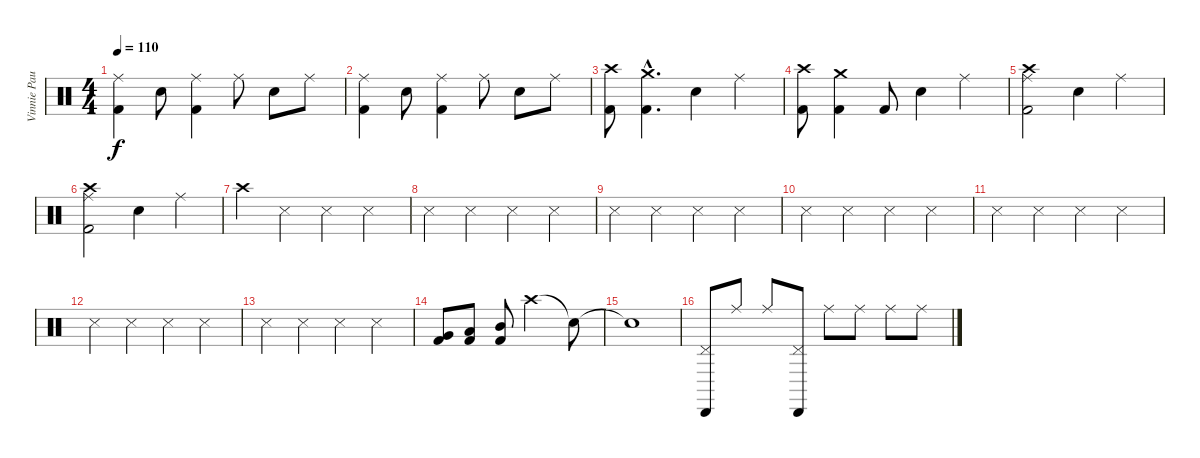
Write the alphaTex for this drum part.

\track ("Vinnie Paul" "Vinnie Pau") {instrument percussion}
\staff {score}
\articulation defaults
\ts (4 4)
\tempo 110
\clef neutral
\ks c
("Ride (middle)" "Kick (hit) 2").4{dy f} "Electric Snare (hit)".8 ("Ride (middle)" "Kick (hit) 2").4 "Ride (middle)".8 "Electric Snare (hit)".8 "Ride (middle)".8 |
("Ride (middle)" "Kick (hit) 2").4 "Electric Snare (hit)".8 ("Ride (middle)" "Kick (hit) 2").4 "Ride (middle)".8 "Electric Snare (hit)".8 "Ride (middle)".8 |
("Crash high (hit)" "Kick (hit) 2").8 ("Crash medium (hit)"{hac} "Kick (hit) 2"{hac}).4{d} "Electric Snare (hit)".4 "Ride (middle)".4 |
("Crash high (hit)" "Kick (hit) 2").8 ("Crash medium (hit)" "Kick (hit) 2").4 "Kick (hit) 2".8 "Electric Snare (hit)".4 "Ride (middle)".4 |
("Crash high (hit)" "Ride (middle)" "Kick (hit) 2").2 "Electric Snare (hit)".4 "Ride (middle)".4 |
("Crash high (hit)" "Ride (middle)" "Kick (hit) 2").2 "Electric Snare (hit)".4 "Ride (middle)".4 |
"Crash high (hit)".4 "Snare (side stick) 3".4 "Snare (side stick) 3".4 "Snare (side stick) 3".4 |
"Snare (side stick) 3".4 "Snare (side stick) 3".4 "Snare (side stick) 3".4 "Snare (side stick) 3".4 |
"Snare (side stick) 3".4 "Snare (side stick) 3".4 "Snare (side stick) 3".4 "Snare (side stick) 3".4 |
"Snare (side stick) 3".4 "Snare (side stick) 3".4 "Snare (side stick) 3".4 "Snare (side stick) 3".4 |
"Snare (side stick) 3".4 "Snare (side stick) 3".4 "Snare (side stick) 3".4 "Snare (side stick) 3".4 |
"Snare (side stick) 3".4 "Snare (side stick) 3".4 "Snare (side stick) 3".4 "Snare (side stick) 3".4 |
"Snare (side stick) 3".4 "Snare (side stick) 3".4 "Snare (side stick) 3".4 "Snare (side stick) 3".4 |
("Very Low Tom (hit)" "Kick (hit) 2").8 ("Low Tom (hit)" "Kick (hit) 2").8 ("Mid Tom (hit)" "Kick (hit) 2").8 "Crash high (hit)".2 "Snare (hit)"{t}.8 |
"Snare (hit)"{t}.1 |
("Cabasa (hit)" "Pedal Hi-Hat (hit)").8 "Ride (middle)".8 "Ride (middle)".8 ("Cabasa (hit)" "Pedal Hi-Hat (hit)").8 "Ride (middle)".8 "Ride (middle)".8 "Ride (middle)".8 "Ride (middle)".8
